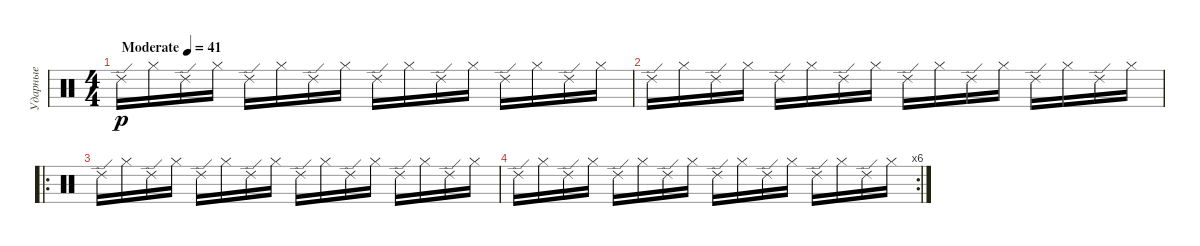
\track ("Ударные" "Ударные") {instrument percussion}
\staff {score}
\articulation defaults
\ts (4 4)
\tempo (41 "Moderate")
\clef neutral
\ks c "Ride (edge) 2".16{dy p} "Hi-Hat (closed)".16 "Ride (edge) 2".16 "Hi-Hat (closed)".16 "Ride (edge) 2".16 "Hi-Hat (closed)".16 "Ride (edge) 2".16 "Hi-Hat (closed)".16 "Ride (edge) 2".16 "Hi-Hat (closed)".16 "Ride (edge) 2".16 "Hi-Hat (closed)".16 "Ride (edge) 2".16 "Hi-Hat (closed)".16 "Ride (edge) 2".16 "Hi-Hat (closed)".16
|
"Ride (edge) 2".16 "Hi-Hat (closed)".16 "Ride (edge) 2".16 "Hi-Hat (closed)".16 "Ride (edge) 2".16 "Hi-Hat (closed)".16 "Ride (edge) 2".16 "Hi-Hat (closed)".16 "Ride (edge) 2".16 "Hi-Hat (closed)".16 "Ride (edge) 2".16 "Hi-Hat (closed)".16 "Ride (edge) 2".16 "Hi-Hat (closed)".16 "Ride (edge) 2".16 "Hi-Hat (closed)".16 |
\ro "Ride (edge) 2".16 "Hi-Hat (closed)".16 "Ride (edge) 2".16 "Hi-Hat (closed)".16 "Ride (edge) 2".16 "Hi-Hat (closed)".16 "Ride (edge) 2".16 "Hi-Hat (closed)".16 "Ride (edge) 2".16 "Hi-Hat (closed)".16 "Ride (edge) 2".16 "Hi-Hat (closed)".16 "Ride (edge) 2".16 "Hi-Hat (closed)".16 "Ride (edge) 2".16 "Hi-Hat (closed)".16
|
\rc 6 "Ride (edge) 2".16 "Hi-Hat (closed)".16 "Ride (edge) 2".16 "Hi-Hat (closed)".16 "Ride (edge) 2".16 "Hi-Hat (closed)".16 "Ride (edge) 2".16 "Hi-Hat (closed)".16 "Ride (edge) 2".16 "Hi-Hat (closed)".16 "Ride (edge) 2".16 "Hi-Hat (closed)".16 "Ride (edge) 2".16 "Hi-Hat (closed)".16 "Ride (edge) 2".16 "Hi-Hat (closed)".16
